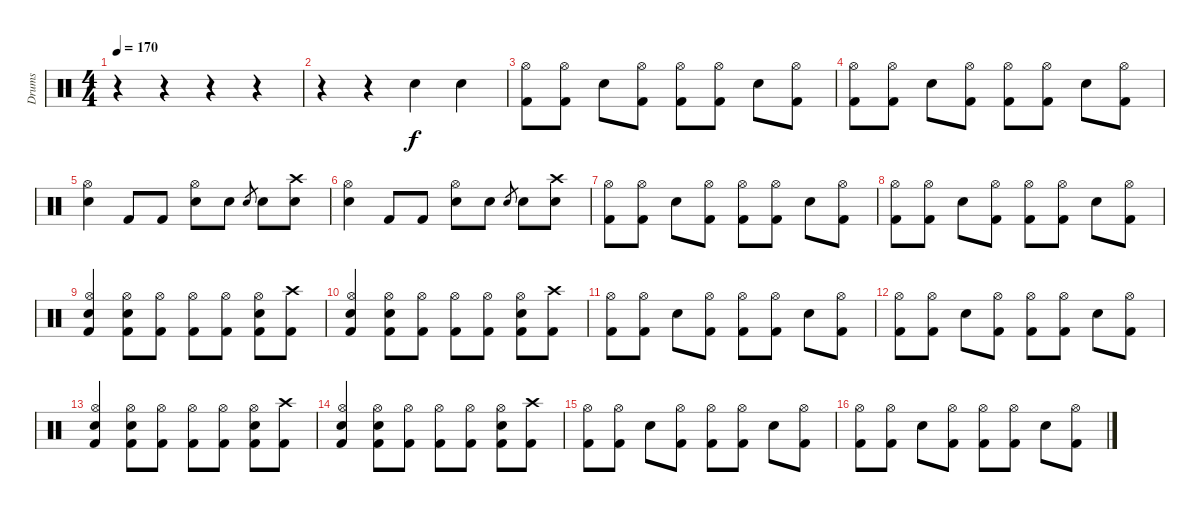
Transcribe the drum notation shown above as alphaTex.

\track ("Drums" "Drums") {instrument percussion}
\staff {score}
\articulation defaults
\ts (4 4)
\tempo 170
\clef neutral
\ks c
r.4{dy f} r.4 r.4 r.4 |
r.4 r.4 "Snare (hit) 2".4 "Snare (hit) 2".4 |
("Hi-Hat (open)" "Kick (hit) 2").8 ("Hi-Hat (open)" "Kick (hit) 2").8 "Snare (hit) 2".8 ("Hi-Hat (open)" "Kick (hit) 2").8 ("Hi-Hat (open)" "Kick (hit) 2").8 ("Hi-Hat (open)" "Kick (hit) 2").8 "Snare (hit) 2".8 ("Hi-Hat (open)" "Kick (hit) 2").8 |
("Hi-Hat (open)" "Kick (hit) 2").8 ("Hi-Hat (open)" "Kick (hit) 2").8 "Snare (hit) 2".8 ("Hi-Hat (open)" "Kick (hit) 2").8 ("Hi-Hat (open)" "Kick (hit) 2").8 ("Hi-Hat (open)" "Kick (hit) 2").8 "Snare (hit) 2".8 ("Hi-Hat (open)" "Kick (hit) 2").8 |
("Hi-Hat (open)" "Snare (hit) 2").4 "Kick (hit) 2".8 "Kick (hit) 2".8 ("Hi-Hat (open)" "Snare (hit) 2").8 "Snare (hit) 2".8 "Snare (hit) 2".8{gr} "Snare (hit) 2".8 ("Crash high (hit)" "Snare (hit) 2").8 |
("Hi-Hat (open)" "Snare (hit) 2").4 "Kick (hit) 2".8 "Kick (hit) 2".8 ("Hi-Hat (open)" "Snare (hit) 2").8 "Snare (hit) 2".8 "Snare (hit) 2".8{gr} "Snare (hit) 2".8 ("Crash high (hit)" "Snare (hit) 2").8 |
("Hi-Hat (open)" "Kick (hit) 2").8 ("Hi-Hat (open)" "Kick (hit) 2").8 "Snare (hit) 2".8 ("Hi-Hat (open)" "Kick (hit) 2").8 ("Hi-Hat (open)" "Kick (hit) 2").8 ("Hi-Hat (open)" "Kick (hit) 2").8 "Snare (hit) 2".8 ("Hi-Hat (open)" "Kick (hit) 2").8 |
("Hi-Hat (open)" "Kick (hit) 2").8 ("Hi-Hat (open)" "Kick (hit) 2").8 "Snare (hit) 2".8 ("Hi-Hat (open)" "Kick (hit) 2").8 ("Hi-Hat (open)" "Kick (hit) 2").8 ("Hi-Hat (open)" "Kick (hit) 2").8 "Snare (hit) 2".8 ("Hi-Hat (open)" "Kick (hit) 2").8 |
("Hi-Hat (open)" "Snare (hit) 2" "Kick (hit) 2").4 ("Hi-Hat (open)" "Snare (hit) 2" "Kick (hit) 2").8 ("Hi-Hat (open)" "Kick (hit) 2").8 ("Hi-Hat (open)" "Kick (hit) 2").8 ("Hi-Hat (open)" "Kick (hit) 2").8 ("Hi-Hat (open)" "Snare (hit) 2" "Kick (hit) 2").8 ("Crash high (hit)" "Kick (hit) 2").8 |
("Hi-Hat (open)" "Snare (hit) 2" "Kick (hit) 2").4 ("Hi-Hat (open)" "Snare (hit) 2" "Kick (hit) 2").8 ("Hi-Hat (open)" "Kick (hit) 2").8 ("Hi-Hat (open)" "Kick (hit) 2").8 ("Hi-Hat (open)" "Kick (hit) 2").8 ("Hi-Hat (open)" "Snare (hit) 2" "Kick (hit) 2").8 ("Crash high (hit)" "Kick (hit) 2").8 |
("Hi-Hat (open)" "Kick (hit) 2").8 ("Hi-Hat (open)" "Kick (hit) 2").8 "Snare (hit) 2".8 ("Hi-Hat (open)" "Kick (hit) 2").8 ("Hi-Hat (open)" "Kick (hit) 2").8 ("Hi-Hat (open)" "Kick (hit) 2").8 "Snare (hit) 2".8 ("Hi-Hat (open)" "Kick (hit) 2").8 |
("Hi-Hat (open)" "Kick (hit) 2").8 ("Hi-Hat (open)" "Kick (hit) 2").8 "Snare (hit) 2".8 ("Hi-Hat (open)" "Kick (hit) 2").8 ("Hi-Hat (open)" "Kick (hit) 2").8 ("Hi-Hat (open)" "Kick (hit) 2").8 "Snare (hit) 2".8 ("Hi-Hat (open)" "Kick (hit) 2").8 |
("Hi-Hat (open)" "Snare (hit) 2" "Kick (hit) 2").4 ("Hi-Hat (open)" "Snare (hit) 2" "Kick (hit) 2").8 ("Hi-Hat (open)" "Kick (hit) 2").8 ("Hi-Hat (open)" "Kick (hit) 2").8 ("Hi-Hat (open)" "Kick (hit) 2").8 ("Hi-Hat (open)" "Snare (hit) 2" "Kick (hit) 2").8 ("Crash high (hit)" "Kick (hit) 2").8 |
("Hi-Hat (open)" "Snare (hit) 2" "Kick (hit) 2").4 ("Hi-Hat (open)" "Snare (hit) 2" "Kick (hit) 2").8 ("Hi-Hat (open)" "Kick (hit) 2").8 ("Hi-Hat (open)" "Kick (hit) 2").8 ("Hi-Hat (open)" "Kick (hit) 2").8 ("Hi-Hat (open)" "Snare (hit) 2" "Kick (hit) 2").8 ("Crash high (hit)" "Kick (hit) 2").8 |
("Hi-Hat (open)" "Kick (hit) 2").8 ("Hi-Hat (open)" "Kick (hit) 2").8 "Snare (hit) 2".8 ("Hi-Hat (open)" "Kick (hit) 2").8 ("Hi-Hat (open)" "Kick (hit) 2").8 ("Hi-Hat (open)" "Kick (hit) 2").8 "Snare (hit) 2".8 ("Hi-Hat (open)" "Kick (hit) 2").8 |
("Hi-Hat (open)" "Kick (hit) 2").8 ("Hi-Hat (open)" "Kick (hit) 2").8 "Snare (hit) 2".8 ("Hi-Hat (open)" "Kick (hit) 2").8 ("Hi-Hat (open)" "Kick (hit) 2").8 ("Hi-Hat (open)" "Kick (hit) 2").8 "Snare (hit) 2".8 ("Hi-Hat (open)" "Kick (hit) 2").8
